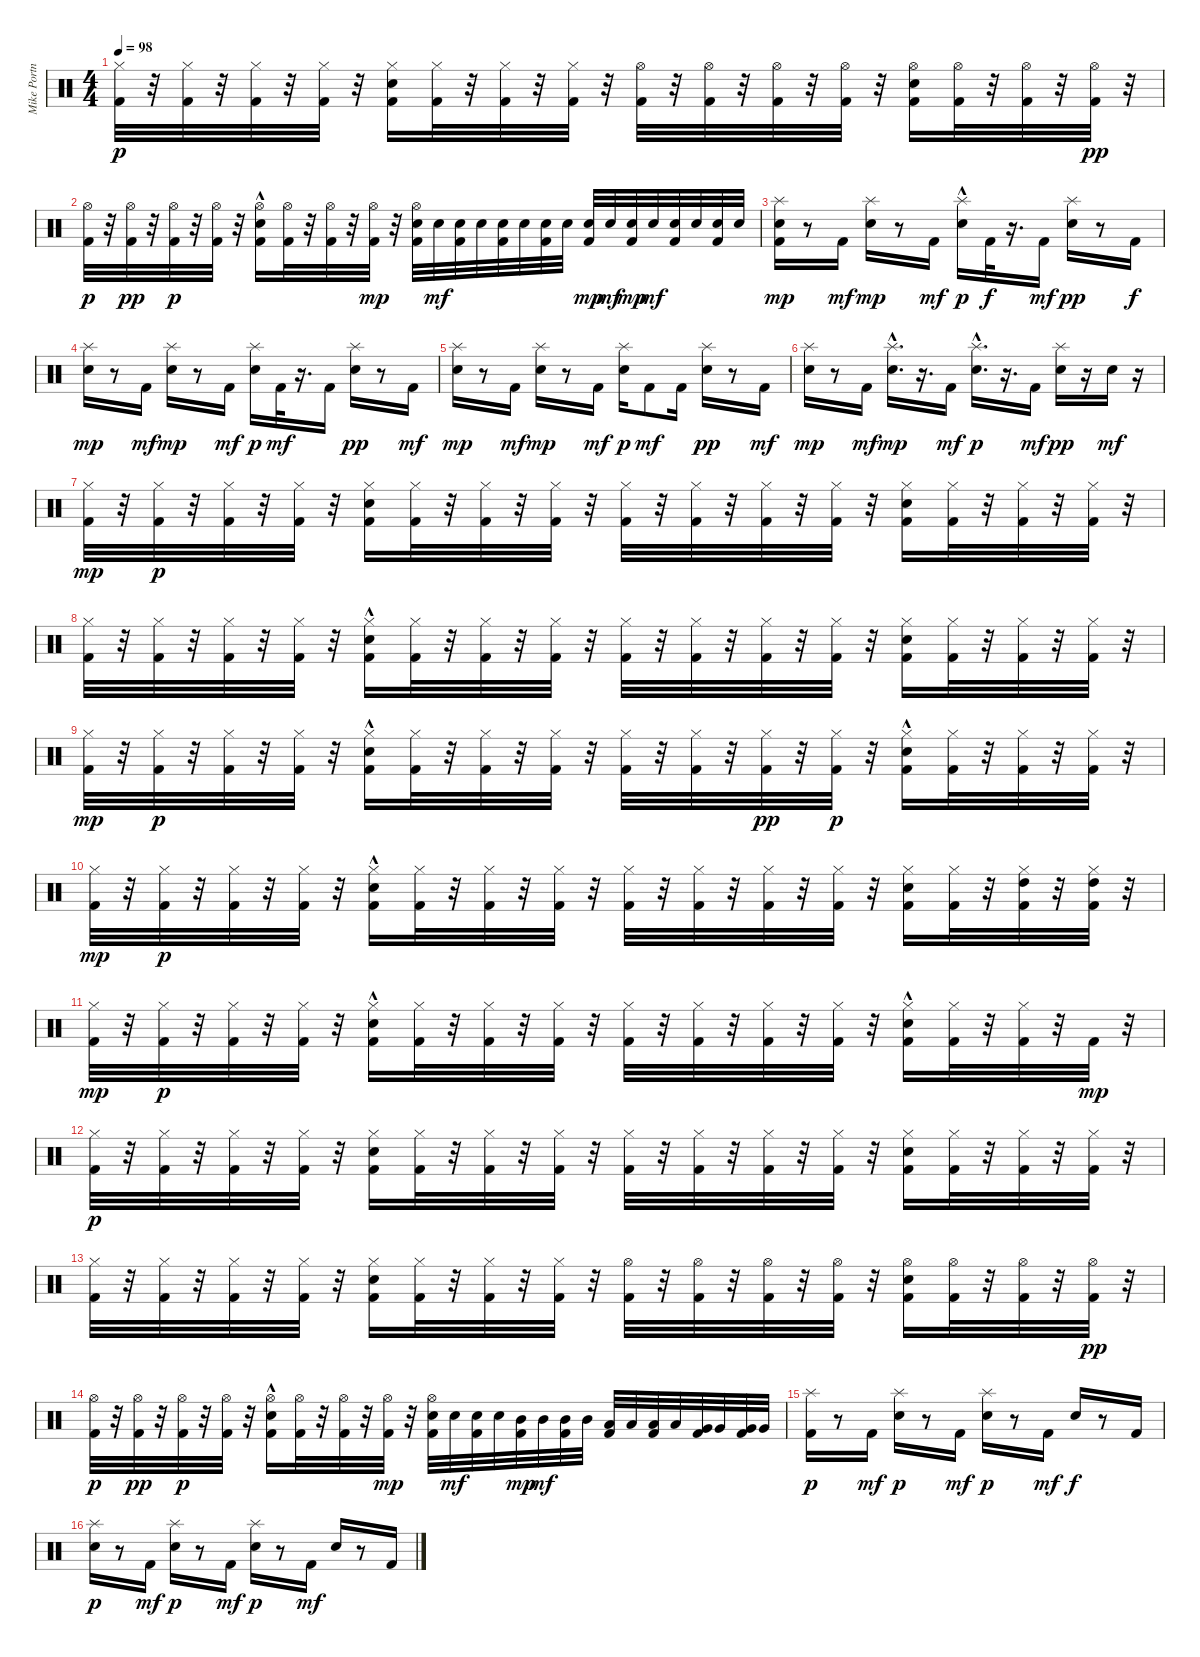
\track ("Mike Portnoy" "Mike Portn") {instrument percussion}
\staff {score}
\articulation defaults
\ts (4 4)
\tempo 98
\clef neutral
\ks c
("Kick (hit) 2" "Hi-Hat (closed)").32{dy p} r.32 ("Kick (hit) 2" "Hi-Hat (closed)").32 r.32 ("Kick (hit) 2" "Hi-Hat (closed)").32 r.32 ("Kick (hit) 2" "Hi-Hat (closed)").32 r.32 ("Kick (hit) 2" "Electric Snare (hit)" "Hi-Hat (closed)").16 ("Kick (hit) 2" "Hi-Hat (closed)").32 r.32 ("Kick (hit) 2" "Hi-Hat (closed)").32 r.32 ("Kick (hit) 2" "Hi-Hat (closed)").32 r.32 ("Kick (hit) 2" "Hi-Hat (open)").32 r.32 ("Kick (hit) 2" "Hi-Hat (open)").32 r.32 ("Kick (hit) 2" "Hi-Hat (open)").32 r.32 ("Kick (hit) 2" "Hi-Hat (open)").32 r.32 ("Kick (hit) 2" "Electric Snare (hit)" "Hi-Hat (open)").16 ("Kick (hit) 2" "Hi-Hat (open)").32 r.32 ("Kick (hit) 2" "Hi-Hat (open)").32 r.32 ("Kick (hit) 2" "Hi-Hat (open)").32{dy pp} r.32 |
("Kick (hit) 2" "Hi-Hat (open)").32{dy p} r.32 ("Kick (hit) 2" "Hi-Hat (open)").32{dy pp} r.32 ("Kick (hit) 2" "Hi-Hat (open)").32{dy p} r.32 ("Kick (hit) 2" "Hi-Hat (open)").32 r.32 ("Kick (hit) 2" "Electric Snare (hit)"{hac} "Hi-Hat (open)").16 ("Kick (hit) 2" "Hi-Hat (open)").32 r.32 ("Kick (hit) 2" "Hi-Hat (open)").32 r.32 ("Kick (hit) 2" "Hi-Hat (open)").32{dy mp} r.32 ("Kick (hit) 2" "Electric Snare (hit)" "Hi-Hat (open)").32 "Electric Snare (hit)".32{dy mf} ("Kick (hit) 2" "Electric Snare (hit)").32 "Electric Snare (hit)".32 ("Kick (hit) 2" "Electric Snare (hit)").32 "Electric Snare (hit)".32 ("Kick (hit) 2" "Electric Snare (hit)").32 "Electric Snare (hit)".32 ("Kick (hit) 2" "Electric Snare (hit)").32{dy mp} "Electric Snare (hit)".32{dy mf} ("Kick (hit) 2" "Electric Snare (hit)").32{dy mp} "Electric Snare (hit)".32{dy mf} ("Kick (hit) 2" "Electric Snare (hit)").32 "Electric Snare (hit)".32 ("Kick (hit) 2" "Electric Snare (hit)").32 "Electric Snare (hit)".32 |
("Kick (hit) 2" "Electric Snare (hit)" "Splash (hit)").16{dy mp} r.8 "Kick (hit) 2".16{dy mf} ("Electric Snare (hit)" "Splash (hit)").16{dy mp} r.8 "Kick (hit) 2".16{dy mf} ("Electric Snare (hit)"{hac} "Splash (hit)").16{dy p} "Kick (hit) 2".32{dy f} r.16{d} "Kick (hit) 2".16{dy mf} ("Electric Snare (hit)" "Splash (hit)").16{dy pp} r.8 "Kick (hit) 2".16{dy f} |
("Electric Snare (hit)" "Splash (hit)").16{dy mp} r.8 "Kick (hit) 2".16{dy mf} ("Electric Snare (hit)" "Splash (hit)").16{dy mp} r.8 "Kick (hit) 2".16{dy mf} ("Electric Snare (hit)" "Splash (hit)").16{dy p} "Kick (hit) 2".32{dy mf} r.16{d} "Kick (hit) 2".16 ("Electric Snare (hit)" "Splash (hit)").16{dy pp} r.8 "Kick (hit) 2".16{dy mf} |
("Electric Snare (hit)" "Splash (hit)").16{dy mp} r.8 "Kick (hit) 2".16{dy mf} ("Electric Snare (hit)" "Splash (hit)").16{dy mp} r.8 "Kick (hit) 2".16{dy mf} ("Electric Snare (hit)" "Splash (hit)").16{dy p} "Kick (hit) 2".8{dy mf} "Kick (hit) 2".16 ("Electric Snare (hit)" "Splash (hit)").16{dy pp} r.8 "Kick (hit) 2".16{dy mf} |
("Electric Snare (hit)" "Splash (hit)").16{dy mp} r.8 "Kick (hit) 2".16{dy mf} ("Electric Snare (hit)"{hac} "Splash (hit)").16{d dy mp} r.16{d} "Kick (hit) 2".16{dy mf} ("Electric Snare (hit)"{hac} "Splash (hit)").16{d dy p} r.16{d} "Kick (hit) 2".16{dy mf} ("Electric Snare (hit)" "Splash (hit)").16{dy pp} r.16 "Electric Snare (hit)".16{dy mf} r.16 |
("Kick (hit) 2" "Hi-Hat (closed)").32{dy mp} r.32 ("Kick (hit) 2" "Hi-Hat (closed)").32{dy p} r.32 ("Kick (hit) 2" "Hi-Hat (closed)").32 r.32 ("Kick (hit) 2" "Hi-Hat (closed)").32 r.32 ("Kick (hit) 2" "Electric Snare (hit)" "Hi-Hat (closed)").16 ("Kick (hit) 2" "Hi-Hat (closed)").32 r.32 ("Kick (hit) 2" "Hi-Hat (closed)").32 r.32 ("Kick (hit) 2" "Hi-Hat (closed)").32 r.32 ("Kick (hit) 2" "Hi-Hat (closed)").32 r.32 ("Kick (hit) 2" "Hi-Hat (closed)").32 r.32 ("Kick (hit) 2" "Hi-Hat (closed)").32 r.32 ("Kick (hit) 2" "Hi-Hat (closed)").32 r.32 ("Kick (hit) 2" "Electric Snare (hit)" "Hi-Hat (closed)").16 ("Kick (hit) 2" "Hi-Hat (closed)").32 r.32 ("Kick (hit) 2" "Hi-Hat (closed)").32 r.32 ("Kick (hit) 2" "Hi-Hat (closed)").32 r.32 |
("Kick (hit) 2" "Hi-Hat (closed)").32 r.32 ("Kick (hit) 2" "Hi-Hat (closed)").32 r.32 ("Kick (hit) 2" "Hi-Hat (closed)").32 r.32 ("Kick (hit) 2" "Hi-Hat (closed)").32 r.32 ("Kick (hit) 2" "Electric Snare (hit)"{hac} "Hi-Hat (closed)").16 ("Kick (hit) 2" "Hi-Hat (closed)").32 r.32 ("Kick (hit) 2" "Hi-Hat (closed)").32 r.32 ("Kick (hit) 2" "Hi-Hat (closed)").32 r.32 ("Kick (hit) 2" "Hi-Hat (closed)").32 r.32 ("Kick (hit) 2" "Hi-Hat (closed)").32 r.32 ("Kick (hit) 2" "Hi-Hat (closed)").32 r.32 ("Kick (hit) 2" "Hi-Hat (closed)").32 r.32 ("Kick (hit) 2" "Electric Snare (hit)" "Hi-Hat (closed)").16 ("Kick (hit) 2" "Hi-Hat (closed)").32 r.32 ("Kick (hit) 2" "Hi-Hat (closed)").32 r.32 ("Kick (hit) 2" "Hi-Hat (closed)").32 r.32 |
("Kick (hit) 2" "Hi-Hat (closed)").32{dy mp} r.32 ("Kick (hit) 2" "Hi-Hat (closed)").32{dy p} r.32 ("Kick (hit) 2" "Hi-Hat (closed)").32 r.32 ("Kick (hit) 2" "Hi-Hat (closed)").32 r.32 ("Kick (hit) 2" "Electric Snare (hit)"{hac} "Hi-Hat (closed)").16 ("Kick (hit) 2" "Hi-Hat (closed)").32 r.32 ("Kick (hit) 2" "Hi-Hat (closed)").32 r.32 ("Kick (hit) 2" "Hi-Hat (closed)").32 r.32 ("Kick (hit) 2" "Hi-Hat (closed)").32 r.32 ("Kick (hit) 2" "Hi-Hat (closed)").32 r.32 ("Kick (hit) 2" "Hi-Hat (closed)").32{dy pp} r.32 ("Kick (hit) 2" "Hi-Hat (closed)").32{dy p} r.32 ("Kick (hit) 2" "Electric Snare (hit)"{hac} "Hi-Hat (closed)").16 ("Kick (hit) 2" "Hi-Hat (closed)").32 r.32 ("Kick (hit) 2" "Hi-Hat (closed)").32 r.32 ("Kick (hit) 2" "Hi-Hat (closed)").32 r.32 |
("Kick (hit) 2" "Hi-Hat (closed)").32{dy mp} r.32 ("Kick (hit) 2" "Hi-Hat (closed)").32{dy p} r.32 ("Kick (hit) 2" "Hi-Hat (closed)").32 r.32 ("Kick (hit) 2" "Hi-Hat (closed)").32 r.32 ("Kick (hit) 2" "Electric Snare (hit)"{hac} "Hi-Hat (closed)").16 ("Kick (hit) 2" "Hi-Hat (closed)").32 r.32 ("Kick (hit) 2" "Hi-Hat (closed)").32 r.32 ("Kick (hit) 2" "Hi-Hat (closed)").32 r.32 ("Kick (hit) 2" "Hi-Hat (closed)").32 r.32 ("Kick (hit) 2" "Hi-Hat (closed)").32 r.32 ("Kick (hit) 2" "Hi-Hat (closed)").32 r.32 ("Kick (hit) 2" "Hi-Hat (closed)").32 r.32 ("Kick (hit) 2" "Electric Snare (hit)" "Hi-Hat (closed)").16 ("Kick (hit) 2" "Hi-Hat (closed)").32 r.32 ("Kick (hit) 2" "High Tom (hit)" "Hi-Hat (closed)").32 r.32 ("Kick (hit) 2" "High Tom (hit)" "Hi-Hat (closed)").32 r.32 |
("Kick (hit) 2" "Hi-Hat (closed)").32{dy mp} r.32 ("Kick (hit) 2" "Hi-Hat (closed)").32{dy p} r.32 ("Kick (hit) 2" "Hi-Hat (closed)").32 r.32 ("Kick (hit) 2" "Hi-Hat (closed)").32 r.32 ("Kick (hit) 2" "Electric Snare (hit)"{hac} "Hi-Hat (closed)").16 ("Kick (hit) 2" "Hi-Hat (closed)").32 r.32 ("Kick (hit) 2" "Hi-Hat (closed)").32 r.32 ("Kick (hit) 2" "Hi-Hat (closed)").32 r.32 ("Kick (hit) 2" "Hi-Hat (closed)").32 r.32 ("Kick (hit) 2" "Hi-Hat (closed)").32 r.32 ("Kick (hit) 2" "Hi-Hat (closed)").32 r.32 ("Kick (hit) 2" "Hi-Hat (closed)").32 r.32 ("Kick (hit) 2" "Electric Snare (hit)"{hac} "Hi-Hat (closed)").16 ("Kick (hit) 2" "Hi-Hat (closed)").32 r.32 ("Kick (hit) 2" "Hi-Hat (closed)").32 r.32 "Kick (hit) 2".32{dy mp} r.32 |
("Kick (hit) 2" "Hi-Hat (closed)").32{dy p} r.32 ("Kick (hit) 2" "Hi-Hat (closed)").32 r.32 ("Kick (hit) 2" "Hi-Hat (closed)").32 r.32 ("Kick (hit) 2" "Hi-Hat (closed)").32 r.32 ("Kick (hit) 2" "Electric Snare (hit)" "Hi-Hat (closed)").16 ("Kick (hit) 2" "Hi-Hat (closed)").32 r.32 ("Kick (hit) 2" "Hi-Hat (closed)").32 r.32 ("Kick (hit) 2" "Hi-Hat (closed)").32 r.32 ("Kick (hit) 2" "Hi-Hat (closed)").32 r.32 ("Kick (hit) 2" "Hi-Hat (closed)").32 r.32 ("Kick (hit) 2" "Hi-Hat (closed)").32 r.32 ("Kick (hit) 2" "Hi-Hat (closed)").32 r.32 ("Kick (hit) 2" "Electric Snare (hit)" "Hi-Hat (closed)").16 ("Kick (hit) 2" "Hi-Hat (closed)").32 r.32 ("Kick (hit) 2" "Hi-Hat (closed)").32 r.32 ("Kick (hit) 2" "Hi-Hat (closed)").32 r.32 |
("Kick (hit) 2" "Hi-Hat (closed)").32 r.32 ("Kick (hit) 2" "Hi-Hat (closed)").32 r.32 ("Kick (hit) 2" "Hi-Hat (closed)").32 r.32 ("Kick (hit) 2" "Hi-Hat (closed)").32 r.32 ("Kick (hit) 2" "Electric Snare (hit)" "Hi-Hat (closed)").16 ("Kick (hit) 2" "Hi-Hat (closed)").32 r.32 ("Kick (hit) 2" "Hi-Hat (closed)").32 r.32 ("Kick (hit) 2" "Hi-Hat (closed)").32 r.32 ("Kick (hit) 2" "Hi-Hat (open)").32 r.32 ("Kick (hit) 2" "Hi-Hat (open)").32 r.32 ("Kick (hit) 2" "Hi-Hat (open)").32 r.32 ("Kick (hit) 2" "Hi-Hat (open)").32 r.32 ("Kick (hit) 2" "Electric Snare (hit)" "Hi-Hat (open)").16 ("Kick (hit) 2" "Hi-Hat (open)").32 r.32 ("Kick (hit) 2" "Hi-Hat (open)").32 r.32 ("Kick (hit) 2" "Hi-Hat (open)").32{dy pp} r.32 |
("Kick (hit) 2" "Hi-Hat (open)").32{dy p} r.32 ("Kick (hit) 2" "Hi-Hat (open)").32{dy pp} r.32 ("Kick (hit) 2" "Hi-Hat (open)").32{dy p} r.32 ("Kick (hit) 2" "Hi-Hat (open)").32 r.32 ("Kick (hit) 2" "Electric Snare (hit)"{hac} "Hi-Hat (open)").16 ("Kick (hit) 2" "Hi-Hat (open)").32 r.32 ("Kick (hit) 2" "Hi-Hat (open)").32 r.32 ("Kick (hit) 2" "Hi-Hat (open)").32{dy mp} r.32 ("Kick (hit) 2" "Electric Snare (hit)" "Hi-Hat (open)").32 "Electric Snare (hit)".32{dy mf} ("Kick (hit) 2" "Electric Snare (hit)").32 "Electric Snare (hit)".32 ("Kick (hit) 2" "Mid Tom (hit)").32{dy mp} "Mid Tom (hit)".32{dy mf} ("Kick (hit) 2" "Mid Tom (hit)").32 "Mid Tom (hit)".32 ("Kick (hit) 2" "Low Tom (hit)").32 "Low Tom (hit)".32 ("Kick (hit) 2" "Low Tom (hit)").32 "Low Tom (hit)".32 ("Kick (hit) 2" "Very Low Tom (hit)").32 "Very Low Tom (hit)".32 ("Kick (hit) 2" "Very Low Tom (hit)").32 "Very Low Tom (hit)".32 |
("Kick (hit) 2" "Splash (hit)").16{dy p} r.8 "Kick (hit) 2".16{dy mf} ("Electric Snare (hit)" "Splash (hit)").16{dy p} r.8 "Kick (hit) 2".16{dy mf} ("Electric Snare (hit)" "Splash (hit)").16{dy p} r.8 "Kick (hit) 2".16{dy mf} "Electric Snare (hit)".16{dy f} r.8 "Kick (hit) 2".16 |
("Electric Snare (hit)" "Splash (hit)").16{dy p} r.8 "Kick (hit) 2".16{dy mf} ("Electric Snare (hit)" "Splash (hit)").16{dy p} r.8 "Kick (hit) 2".16{dy mf} ("Electric Snare (hit)" "Splash (hit)").16{dy p} r.8 "Kick (hit) 2".16{dy mf} "Electric Snare (hit)".16 r.8 "Kick (hit) 2".16
